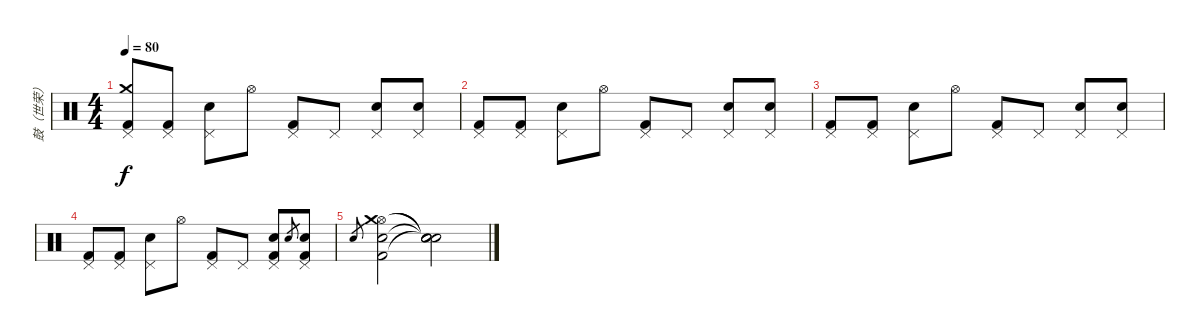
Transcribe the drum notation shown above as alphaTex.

\track ("鼓（世荣）" "鼓（世荣）") {instrument percussion}
\staff {score}
\articulation defaults
\ts (4 4)
\tempo 80
\clef neutral
\ks c
("Pedal Hi-Hat (hit)" "Crash medium (hit)" "Kick (hit) 2").8{dy f} ("Pedal Hi-Hat (hit)" "Kick (hit) 2").8 ("Pedal Hi-Hat (hit)" "Snare (hit) 2").8{volume 16} "Hi-Hat (open)".8 ("Pedal Hi-Hat (hit)" "Kick (hit) 2").8{volume 15} "Pedal Hi-Hat (hit)".8 ("Pedal Hi-Hat (hit)" "Snare (hit) 2").8{volume 14} ("Pedal Hi-Hat (hit)" "Snare (hit) 2").8 |
("Pedal Hi-Hat (hit)" "Kick (hit) 2").8{volume 13} ("Pedal Hi-Hat (hit)" "Kick (hit) 2").8 ("Pedal Hi-Hat (hit)" "Snare (hit) 2").8{volume 12} "Hi-Hat (open)".8 ("Pedal Hi-Hat (hit)" "Kick (hit) 2").8{volume 11} "Pedal Hi-Hat (hit)".8 ("Pedal Hi-Hat (hit)" "Snare (hit) 2").8{volume 10} ("Pedal Hi-Hat (hit)" "Snare (hit) 2").8 |
("Pedal Hi-Hat (hit)" "Kick (hit) 2").8{volume 9} ("Pedal Hi-Hat (hit)" "Kick (hit) 2").8 ("Pedal Hi-Hat (hit)" "Snare (hit) 2").8{volume 8} "Hi-Hat (open)".8 ("Pedal Hi-Hat (hit)" "Kick (hit) 2").8{volume 7} "Pedal Hi-Hat (hit)".8 ("Pedal Hi-Hat (hit)" "Snare (hit) 2").8{volume 6} ("Pedal Hi-Hat (hit)" "Snare (hit) 2").8 |
("Pedal Hi-Hat (hit)" "Kick (hit) 2").8{volume 5} ("Pedal Hi-Hat (hit)" "Kick (hit) 2").8 ("Pedal Hi-Hat (hit)" "Snare (hit) 2").8{volume 4} "Hi-Hat (open)".8 ("Pedal Hi-Hat (hit)" "Kick (hit) 2").8{volume 3} "Pedal Hi-Hat (hit)".8 ("Pedal Hi-Hat (hit)" "Kick (hit) 2" "Snare (hit) 2").8{volume 2} "Snare (hit) 2".8{gr} ("Pedal Hi-Hat (hit)" "Kick (hit) 2" "Snare (hit) 2").8 |
"Snare (hit) 2".8{gr} ("Hi-Hat (open)" "Crash medium (hit)" "Kick (hit) 2" "Snare (hit) 2").2{volume 1} ("Snare (hit)"{t} "Snare (hit)"{t} "Snare (hit)"{t} "Snare (hit)"{t}).2
